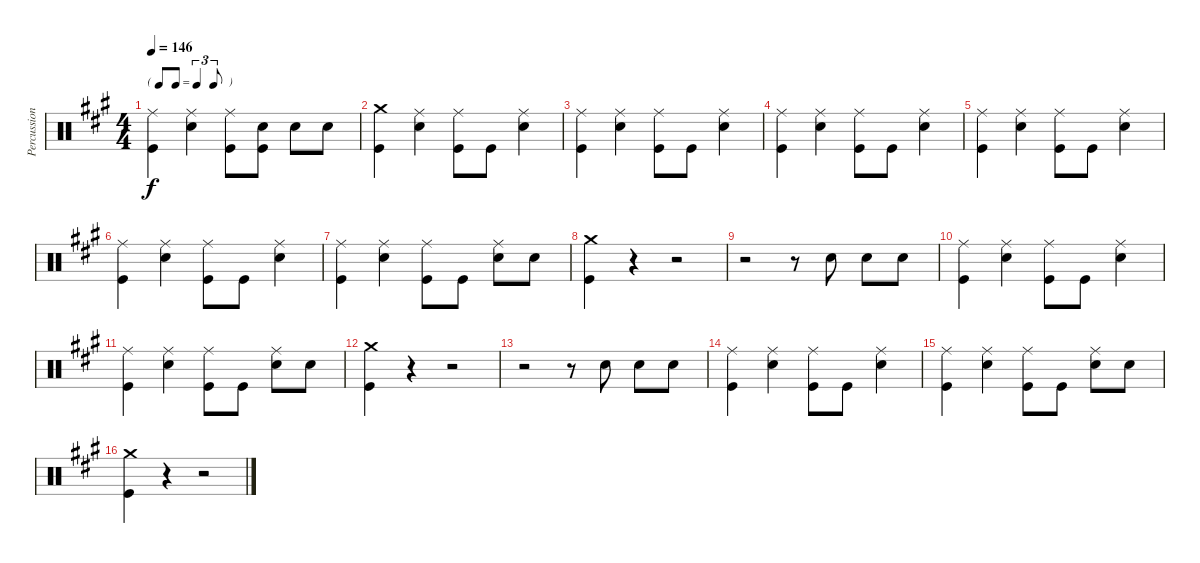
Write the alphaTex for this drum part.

\track ("Percussion" "Percussion") {instrument percussion}
\staff {score}
\articulation defaults
\ts (4 4)
\tf triplet8th
\tempo 146
\clef neutral
\ks a
("Ride (middle)" "Kick (hit)").4{dy f} ("Ride (middle)" "Snare (hit) 2").4 ("Ride (middle)" "Kick (hit)").8 ("Snare (hit) 2" "Kick (hit)").8 "Snare (hit) 2".8 "Snare (hit) 2".8 |
("Crash medium (hit)" "Kick (hit)").4 ("Ride (middle)" "Snare (hit) 2").4 ("Ride (middle)" "Kick (hit)").8 "Kick (hit)".8 ("Ride (middle)" "Snare (hit) 2").4 |
("Ride (middle)" "Kick (hit)").4 ("Ride (middle)" "Snare (hit) 2").4 ("Ride (middle)" "Kick (hit)").8 "Kick (hit)".8 ("Ride (middle)" "Snare (hit) 2").4 |
("Ride (middle)" "Kick (hit)").4 ("Ride (middle)" "Snare (hit) 2").4 ("Ride (middle)" "Kick (hit)").8 "Kick (hit)".8 ("Ride (middle)" "Snare (hit) 2").4 |
("Ride (middle)" "Kick (hit)").4 ("Ride (middle)" "Snare (hit) 2").4 ("Ride (middle)" "Kick (hit)").8 "Kick (hit)".8 ("Ride (middle)" "Snare (hit) 2").4 |
("Ride (middle)" "Kick (hit)").4 ("Ride (middle)" "Snare (hit) 2").4 ("Ride (middle)" "Kick (hit)").8 "Kick (hit)".8 ("Ride (middle)" "Snare (hit) 2").4 |
("Ride (middle)" "Kick (hit)").4 ("Ride (middle)" "Snare (hit) 2").4 ("Ride (middle)" "Kick (hit)").8 "Kick (hit)".8 ("Ride (middle)" "Snare (hit) 2").8 "Snare (hit) 2".8 |
("Crash medium (hit)" "Kick (hit)").4 r.4 r.2 |
r.2 r.8 "Snare (hit) 2".8 "Snare (hit) 2".8 "Snare (hit) 2".8 |
("Ride (middle)" "Kick (hit)").4 ("Ride (middle)" "Snare (hit) 2").4 ("Ride (middle)" "Kick (hit)").8 "Kick (hit)".8 ("Ride (middle)" "Snare (hit) 2").4 |
("Ride (middle)" "Kick (hit)").4 ("Ride (middle)" "Snare (hit) 2").4 ("Ride (middle)" "Kick (hit)").8 "Kick (hit)".8 ("Ride (middle)" "Snare (hit) 2").8 "Snare (hit) 2".8 |
("Crash medium (hit)" "Kick (hit)").4 r.4 r.2 |
r.2 r.8 "Snare (hit) 2".8 "Snare (hit) 2".8 "Snare (hit) 2".8 |
("Ride (middle)" "Kick (hit)").4 ("Ride (middle)" "Snare (hit) 2").4 ("Ride (middle)" "Kick (hit)").8 "Kick (hit)".8 ("Ride (middle)" "Snare (hit) 2").4 |
("Ride (middle)" "Kick (hit)").4 ("Ride (middle)" "Snare (hit) 2").4 ("Ride (middle)" "Kick (hit)").8 "Kick (hit)".8 ("Ride (middle)" "Snare (hit) 2").8 "Snare (hit) 2".8 |
("Crash medium (hit)" "Kick (hit)").4 r.4 r.2
